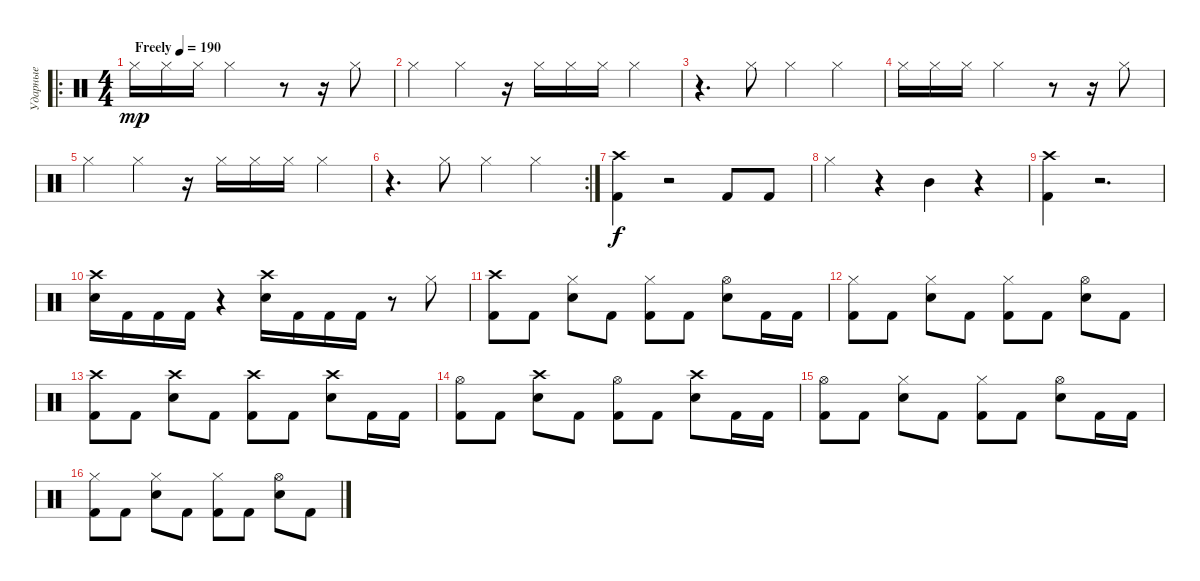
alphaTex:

\track ("Ударные" "Ударные") {instrument percussion}
\staff {score}
\articulation defaults
\ro
\ts (4 4)
\tempo (190 "Freely")
\clef neutral
\ks c "Hi-Hat (closed)".16{dy mp} "Hi-Hat (closed)".16 "Hi-Hat (closed)".16 "Hi-Hat (closed)".2
r.8 r.16 "Hi-Hat (closed)".8 |
"Hi-Hat (closed)".4 "Hi-Hat (closed)".4 r.16 "Hi-Hat (closed)".16 "Hi-Hat (closed)".16 "Hi-Hat (closed)".16 "Hi-Hat (closed)".4 |
r.4{d} "Hi-Hat (closed)".8 "Hi-Hat (closed)".4 "Hi-Hat (closed)".4 |
"Hi-Hat (closed)".16 "Hi-Hat (closed)".16 "Hi-Hat (closed)".16 "Hi-Hat (closed)".2 r.8 r.16 "Hi-Hat (closed)".8 |
"Hi-Hat (closed)".4 "Hi-Hat (closed)".4 r.16 "Hi-Hat (closed)".16 "Hi-Hat (closed)".16 "Hi-Hat (closed)".16 "Hi-Hat (closed)".4 |
\rc 2
r.4{d} "Hi-Hat (closed)".8 "Hi-Hat (closed)".4 "Hi-Hat (closed)".4 |
("Crash high (hit)" "Kick (hit) 2").4{dy f} r.2 "Kick (hit) 2".8 "Kick (hit) 2".8 |
"Hi-Hat (closed)".4 r.4 "Mid Tom (hit)".4 r.4 |
("Crash high (hit)" "Kick (hit) 2").4 r.2{d} |
("Crash high (hit)" "Snare (hit) 2").16 "Kick (hit) 2".16 "Kick (hit) 2".16 "Kick (hit) 2".16 r.4 ("Crash high (hit)" "Snare (hit) 2").16 "Kick (hit) 2".16 "Kick (hit) 2".16 "Kick (hit) 2".16 r.8 "Hi-Hat (closed)".8 |
("Crash high (hit)" "Kick (hit) 2").8 "Kick (hit) 2".8 ("Hi-Hat (closed)" "Snare (hit) 2").8 "Kick (hit) 2".8 ("Hi-Hat (closed)" "Kick (hit) 2").8 "Kick (hit) 2".8 ("Hi-Hat (open)" "Snare (hit) 2").8 "Kick (hit) 2".16 "Kick (hit) 2".16 |
("Hi-Hat (closed)" "Kick (hit) 2").8 "Kick (hit) 2".8 ("Hi-Hat (closed)" "Snare (hit) 2").8 "Kick (hit) 2".8 ("Hi-Hat (closed)" "Kick (hit) 2").8 "Kick (hit) 2".8 ("Hi-Hat (open)" "Snare (hit) 2").8 "Kick (hit) 2".8 |
("Crash high (hit)" "Kick (hit) 2").8 "Kick (hit) 2".8 ("Crash high (hit)" "Snare (hit) 2").8 "Kick (hit) 2".8 ("Crash high (hit)" "Kick (hit) 2").8 "Kick (hit) 2".8 ("Crash high (hit)" "Snare (hit) 2").8 "Kick (hit) 2".16 "Kick (hit) 2".16 |
("Hi-Hat (open)" "Kick (hit) 2").8 "Kick (hit) 2".8 ("Crash high (hit)" "Snare (hit) 2").8 "Kick (hit) 2".8 ("Hi-Hat (open)" "Kick (hit) 2").8 "Kick (hit) 2".8 ("Crash high (hit)" "Snare (hit) 2").8 "Kick (hit) 2".16 "Kick (hit) 2".16 |
("Hi-Hat (open)" "Kick (hit) 2").8 "Kick (hit) 2".8 ("Hi-Hat (closed)" "Snare (hit) 2").8 "Kick (hit) 2".8 ("Hi-Hat (closed)" "Kick (hit) 2").8 "Kick (hit) 2".8 ("Hi-Hat (open)" "Snare (hit) 2").8 "Kick (hit) 2".16 "Kick (hit) 2".16 |
("Hi-Hat (closed)" "Kick (hit) 2").8 "Kick (hit) 2".8 ("Hi-Hat (closed)" "Snare (hit) 2").8 "Kick (hit) 2".8 ("Hi-Hat (closed)" "Kick (hit) 2").8 "Kick (hit) 2".8 ("Hi-Hat (open)" "Snare (hit) 2").8 "Kick (hit) 2".8
